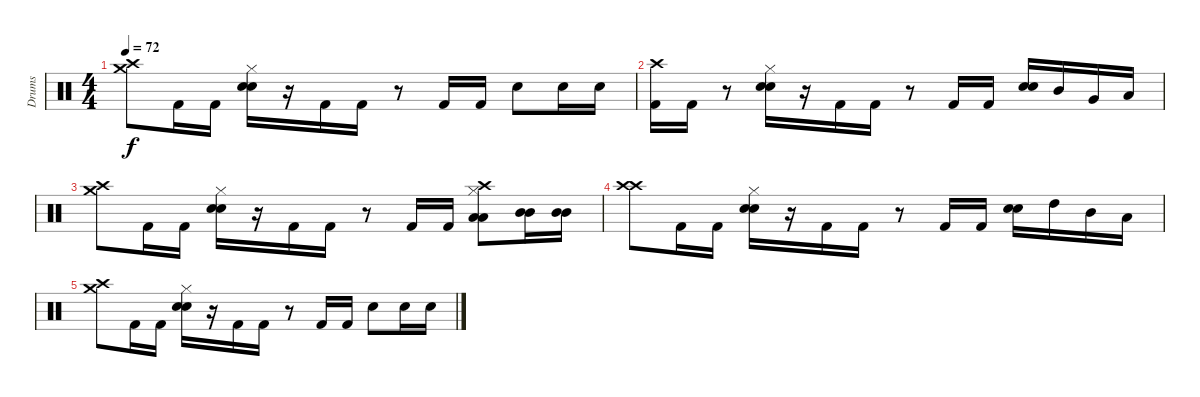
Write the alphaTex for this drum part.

\track ("Drums" "Drums") {instrument percussion}
\staff {score}
\articulation defaults
\ts (4 4)
\tempo 72
\clef neutral
\ks c
("Crash medium (hit)" "Crash high (hit)").8{dy f} "Kick (hit) 2".16 "Kick (hit) 2".16 ("Hi-Hat (closed)" "Electric Snare (hit)" "Electric Snare (hit)").16 r.16 "Kick (hit) 2".16 "Kick (hit) 2".16 r.8 "Kick (hit) 2".16 "Kick (hit) 2".16 "Electric Snare (hit)".8 "Electric Snare (hit)".16 "Electric Snare (hit)".16 |
("Crash high (hit)" "Kick (hit) 2").16{volume 13} "Kick (hit) 2".16 r.8 ("Hi-Hat (closed)" "Electric Snare (hit)" "Electric Snare (hit)").16 r.16 "Kick (hit) 2".16 "Kick (hit) 2".16 r.8 "Kick (hit) 2".16 "Kick (hit) 2".16{volume 11} ("Electric Snare (hit)" "Electric Snare (hit)").16 "Mid Tom (hit)".16 "Very Low Tom (hit)".16 "Low Tom (hit)".16 |
("Crash high (hit)" "Crash medium (hit)").8{volume 10} "Kick (hit) 2".16 "Kick (hit) 2".16 ("Hi-Hat (closed)" "Electric Snare (hit)" "Electric Snare (hit)").16 r.16 "Kick (hit) 2".16 "Kick (hit) 2".16 r.8 "Kick (hit) 2".16{volume 8} "Kick (hit) 2".16 ("Hi-Hat (closed)" "Crash high (hit)" "Low Tom (hit)" "Low Tom (hit)").8 ("Mid Tom (hit)" "Mid Tom (hit)").16 ("Mid Tom (hit)" "Mid Tom (hit)").16 |
("Crash high (hit)" "Crash high (hit)").8{volume 7} "Kick (hit) 2".16 "Kick (hit) 2".16 ("Hi-Hat (closed)" "Electric Snare (hit)" "Electric Snare (hit)").16 r.16 "Kick (hit) 2".16 "Kick (hit) 2".16 r.8 "Kick (hit) 2".16{volume 6} "Kick (hit) 2".16 ("Electric Snare (hit)" "Electric Snare (hit)").16 "High Tom (hit)".16 "Mid Tom (hit)".16 "Low Tom (hit)".16 |
("Crash medium (hit)" "Crash high (hit)").8{volume 4} "Kick (hit) 2".16 "Kick (hit) 2".16 ("Hi-Hat (closed)" "Electric Snare (hit)" "Electric Snare (hit)").16 r.16 "Kick (hit) 2".16 "Kick (hit) 2".16 r.8 "Kick (hit) 2".16 "Kick (hit) 2".16 "Electric Snare (hit)".8 "Electric Snare (hit)".16 "Electric Snare (hit)".16
